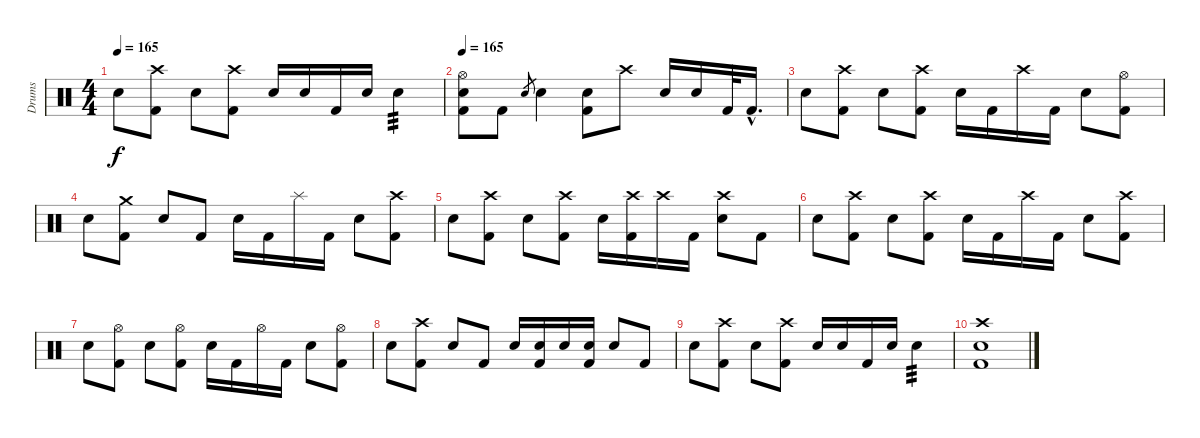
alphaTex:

\track ("Drums" "Drums") {instrument percussion}
\staff {score}
\articulation defaults
\ts (4 4)
\tempo 165
\clef neutral
\ks c "Electric Snare (hit)".8{dy f}
("Crash high (hit)" "Kick (hit) 2").8 "Electric Snare (hit)".8 ("Crash high (hit)" "Kick (hit) 2").8 "Electric Snare (hit)".16 "Electric Snare (hit)".16 "Kick (hit) 2".16 "Electric Snare (hit)".16 "Electric Snare (hit)".4{tp 3} |
\tempo 165
("Hi-Hat (open)" "Electric Snare (hit)" "Kick (hit) 2").8 "Kick (hit) 2".8 "Electric Snare (hit)".8{gr} "Electric Snare (hit)".4 ("Electric Snare (hit)" "Kick (hit) 2").8 "Crash high (hit)".8 "Electric Snare (hit)".16 "Electric Snare (hit)".16 "Kick (hit) 2".32 "Kick (hit) 2"{hac}.16{d} |
"Electric Snare (hit)".8 ("Crash high (hit)" "Kick (hit) 2").8 "Electric Snare (hit)".8 ("Crash high (hit)" "Kick (hit) 2").8 "Electric Snare (hit)".16 "Kick (hit) 2".16 "Crash high (hit)".16 "Kick (hit) 2".16 "Electric Snare (hit)".8 ("Hi-Hat (open)" "Kick (hit) 2").8 |
"Electric Snare (hit)".8 ("Crash medium (hit)" "Kick (hit) 2").8 "Electric Snare (hit)".8 "Kick (hit) 2".8 "Electric Snare (hit)".16 "Kick (hit) 2".16 "Splash (hit)".16 "Kick (hit) 2".16 "Electric Snare (hit)".8 ("Crash high (hit)" "Kick (hit) 2").8 |
"Electric Snare (hit)".8 ("Crash high (hit)" "Kick (hit) 2").8 "Electric Snare (hit)".8 ("Crash high (hit)" "Kick (hit) 2").8 "Electric Snare (hit)".16 ("Crash high (hit)" "Kick (hit) 2").16 "Crash high (hit)".16 "Kick (hit) 2".16 ("Crash high (hit)" "Electric Snare (hit)").8 "Kick (hit) 2".8 |
"Electric Snare (hit)".8 ("Crash high (hit)" "Kick (hit) 2").8 "Electric Snare (hit)".8 ("Crash high (hit)" "Kick (hit) 2").8 "Electric Snare (hit)".16 "Kick (hit) 2".16 "Crash high (hit)".16 "Kick (hit) 2".16 "Electric Snare (hit)".8 ("Crash high (hit)" "Kick (hit) 2").8 |
"Electric Snare (hit)".8 ("Hi-Hat (open)" "Kick (hit) 2").8 "Electric Snare (hit)".8 ("Hi-Hat (open)" "Kick (hit) 2").8 "Electric Snare (hit)".16 "Kick (hit) 2".16 "Hi-Hat (open)".16 "Kick (hit) 2".16 "Electric Snare (hit)".8 ("Hi-Hat (open)" "Kick (hit) 2").8 |
"Electric Snare (hit)".8 ("Crash high (hit)" "Kick (hit) 2").8 "Electric Snare (hit)".8 "Kick (hit) 2".8 "Electric Snare (hit)".16 ("Electric Snare (hit)" "Kick (hit) 2").16 "Electric Snare (hit)".16 ("Electric Snare (hit)" "Kick (hit) 2").16 "Electric Snare (hit)".8 "Kick (hit) 2".8 |
"Electric Snare (hit)".8 ("Crash high (hit)" "Kick (hit) 2").8 "Electric Snare (hit)".8 ("Crash high (hit)" "Kick (hit) 2").8 "Electric Snare (hit)".16 "Electric Snare (hit)".16 "Kick (hit) 2".16 "Electric Snare (hit)".16 "Electric Snare (hit)".4{tp 3} |
("Crash high (hit)" "Electric Snare (hit)" "Kick (hit) 2").1
